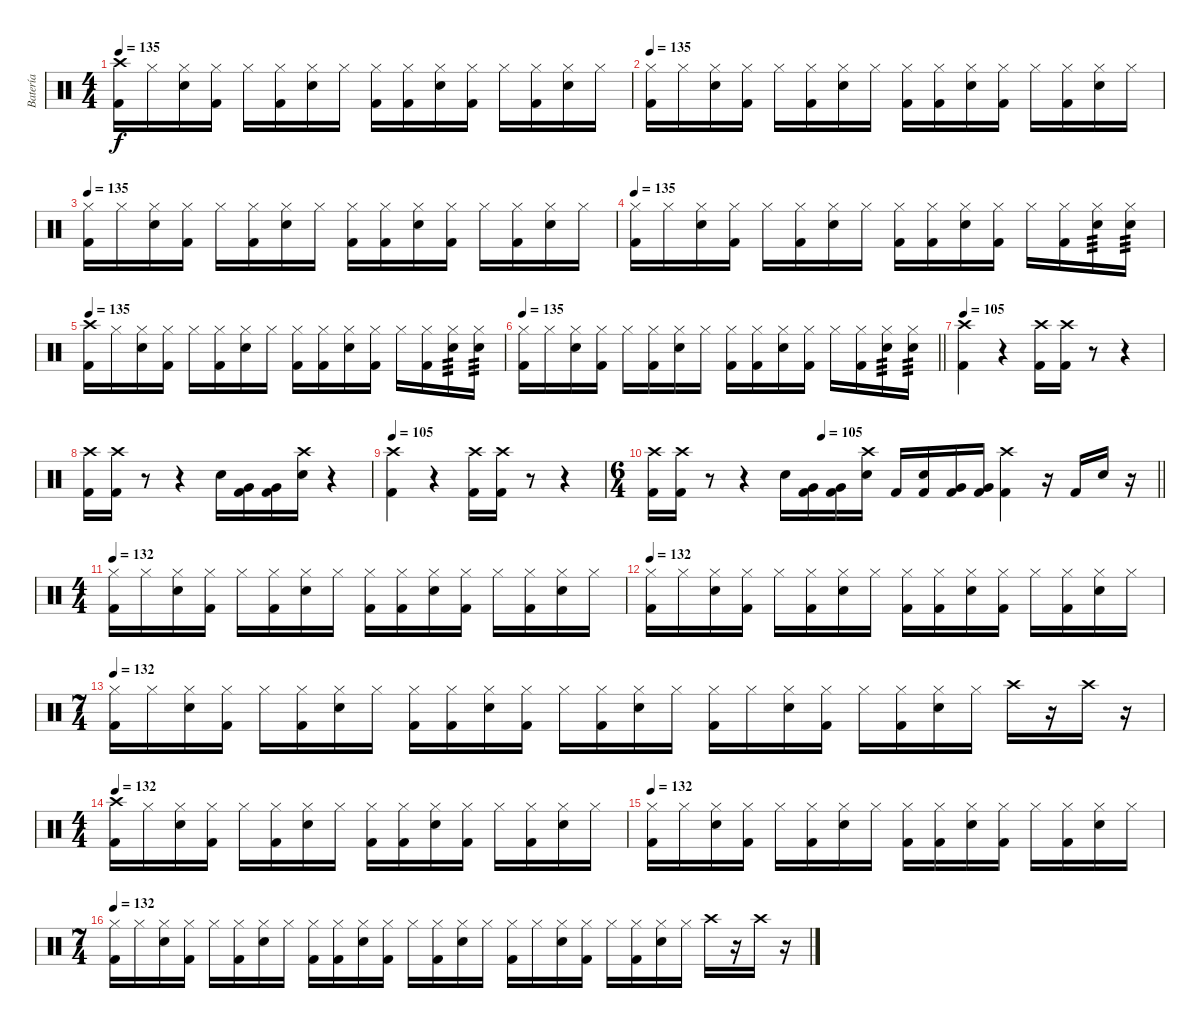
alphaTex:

\track ("Batería" "Batería") {instrument percussion}
\staff {score}
\articulation defaults
\ts (4 4)
\tempo 135
\clef neutral
\ks c
("Crash high (hit)" "Kick (hit) 2").16{dy f} "Hi-Hat (closed)".16 ("Hi-Hat (closed)" "Snare (hit) 2").16 ("Hi-Hat (closed)" "Kick (hit) 2").16 "Hi-Hat (closed)".16 ("Hi-Hat (closed)" "Kick (hit) 2").16 ("Hi-Hat (closed)" "Snare (hit) 2").16 "Hi-Hat (closed)".16 ("Hi-Hat (closed)" "Kick (hit) 2").16 ("Hi-Hat (closed)" "Kick (hit) 2").16 ("Hi-Hat (closed)" "Snare (hit) 2").16 ("Hi-Hat (closed)" "Kick (hit) 2").16 "Hi-Hat (closed)".16 ("Hi-Hat (closed)" "Kick (hit) 2").16 ("Hi-Hat (closed)" "Snare (hit) 2").16 "Hi-Hat (closed)".16 |
\tempo 135
("Hi-Hat (closed)" "Kick (hit) 2").16 "Hi-Hat (closed)".16 ("Hi-Hat (closed)" "Snare (hit) 2").16 ("Hi-Hat (closed)" "Kick (hit) 2").16 "Hi-Hat (closed)".16 ("Hi-Hat (closed)" "Kick (hit) 2").16 ("Hi-Hat (closed)" "Snare (hit) 2").16 "Hi-Hat (closed)".16 ("Hi-Hat (closed)" "Kick (hit) 2").16 ("Hi-Hat (closed)" "Kick (hit) 2").16 ("Hi-Hat (closed)" "Snare (hit) 2").16 ("Hi-Hat (closed)" "Kick (hit) 2").16 "Hi-Hat (closed)".16 ("Hi-Hat (closed)" "Kick (hit) 2").16 ("Hi-Hat (closed)" "Snare (hit) 2").16 "Hi-Hat (closed)".16 |
\tempo 135
("Hi-Hat (closed)" "Kick (hit) 2").16 "Hi-Hat (closed)".16 ("Hi-Hat (closed)" "Snare (hit) 2").16 ("Hi-Hat (closed)" "Kick (hit) 2").16 "Hi-Hat (closed)".16 ("Hi-Hat (closed)" "Kick (hit) 2").16 ("Hi-Hat (closed)" "Snare (hit) 2").16 "Hi-Hat (closed)".16 ("Hi-Hat (closed)" "Kick (hit) 2").16 ("Hi-Hat (closed)" "Kick (hit) 2").16 ("Hi-Hat (closed)" "Snare (hit) 2").16 ("Hi-Hat (closed)" "Kick (hit) 2").16 "Hi-Hat (closed)".16 ("Hi-Hat (closed)" "Kick (hit) 2").16 ("Hi-Hat (closed)" "Snare (hit) 2").16 "Hi-Hat (closed)".16 |
\tempo 135
("Hi-Hat (closed)" "Kick (hit) 2").16 "Hi-Hat (closed)".16 ("Hi-Hat (closed)" "Snare (hit) 2").16 ("Hi-Hat (closed)" "Kick (hit) 2").16 "Hi-Hat (closed)".16 ("Hi-Hat (closed)" "Kick (hit) 2").16 ("Hi-Hat (closed)" "Snare (hit) 2").16 "Hi-Hat (closed)".16 ("Hi-Hat (closed)" "Kick (hit) 2").16 ("Hi-Hat (closed)" "Kick (hit) 2").16 ("Hi-Hat (closed)" "Snare (hit) 2").16 ("Hi-Hat (closed)" "Kick (hit) 2").16 "Hi-Hat (closed)".16 ("Hi-Hat (closed)" "Kick (hit) 2").16 ("Hi-Hat (closed)" "Snare (hit) 2").16{tp 3} ("Hi-Hat (closed)" "Snare (hit) 2").16{tp 3} |
\tempo 135
("Crash high (hit)" "Kick (hit) 2").16 "Hi-Hat (closed)".16 ("Hi-Hat (closed)" "Snare (hit) 2").16 ("Hi-Hat (closed)" "Kick (hit) 2").16 "Hi-Hat (closed)".16 ("Hi-Hat (closed)" "Kick (hit) 2").16 ("Hi-Hat (closed)" "Snare (hit) 2").16 "Hi-Hat (closed)".16 ("Hi-Hat (closed)" "Kick (hit) 2").16 ("Hi-Hat (closed)" "Kick (hit) 2").16 ("Hi-Hat (closed)" "Snare (hit) 2").16 ("Hi-Hat (closed)" "Kick (hit) 2").16 "Hi-Hat (closed)".16 ("Hi-Hat (closed)" "Kick (hit) 2").16 ("Hi-Hat (closed)" "Snare (hit) 2").16{tp 3} ("Hi-Hat (closed)" "Snare (hit) 2").16{tp 3} |
\tempo 135
\barLineRight lightlight
("Hi-Hat (closed)" "Kick (hit) 2").16 "Hi-Hat (closed)".16 ("Hi-Hat (closed)" "Snare (hit) 2").16 ("Hi-Hat (closed)" "Kick (hit) 2").16 "Hi-Hat (closed)".16 ("Hi-Hat (closed)" "Kick (hit) 2").16 ("Hi-Hat (closed)" "Snare (hit) 2").16 "Hi-Hat (closed)".16 ("Hi-Hat (closed)" "Kick (hit) 2").16 ("Hi-Hat (closed)" "Kick (hit) 2").16 ("Hi-Hat (closed)" "Snare (hit) 2").16 ("Hi-Hat (closed)" "Kick (hit) 2").16 "Hi-Hat (closed)".16 ("Hi-Hat (closed)" "Kick (hit) 2").16 ("Hi-Hat (closed)" "Snare (hit) 2").16{tp 3} ("Hi-Hat (closed)" "Snare (hit) 2").16{tp 3} |
\tempo 105
("Crash high (hit)" "Kick (hit) 2").4 r.4 ("Crash high (hit)" "Kick (hit) 2").16 ("Crash high (hit)" "Kick (hit) 2").16 r.8 r.4 |
("Crash high (hit)" "Kick (hit) 2").16 ("Crash high (hit)" "Kick (hit) 2").16 r.8 r.4 "Snare (hit) 2".16 ("Very Low Tom (hit)" "Kick (hit) 2").16 ("Very Low Tom (hit)" "Kick (hit) 2").16 ("Crash high (hit)" "Snare (hit) 2").16 r.4 |
\tempo 105
("Crash high (hit)" "Kick (hit) 2").4 r.4 ("Crash high (hit)" "Kick (hit) 2").16 ("Crash high (hit)" "Kick (hit) 2").16 r.8 r.4 |
\ts (6 4)
\tempo (105 0.3333333333333333)
\barLineRight lightlight
("Crash high (hit)" "Kick (hit) 2").16 ("Crash high (hit)" "Kick (hit) 2").16 r.8 r.4 "Snare (hit) 2".16 ("Very Low Tom (hit)" "Kick (hit) 2").16 ("Very Low Tom (hit)" "Kick (hit) 2").16 ("Crash high (hit)" "Snare (hit) 2").16 "Kick (hit) 2".16 ("Snare (hit) 2" "Kick (hit) 2").16 ("Very Low Tom (hit)" "Kick (hit) 2").16 ("Very Low Tom (hit)" "Kick (hit) 2").16 ("Crash high (hit)" "Kick (hit) 2").4 r.16 "Kick (hit) 2".16 "Snare (hit) 2".16 r.16 |
\ts (4 4)
\tempo 132
("Hi-Hat (closed)" "Kick (hit) 2").16 "Hi-Hat (closed)".16 ("Hi-Hat (closed)" "Snare (hit) 2").16 ("Hi-Hat (closed)" "Kick (hit) 2").16 "Hi-Hat (closed)".16 ("Hi-Hat (closed)" "Kick (hit) 2").16 ("Hi-Hat (closed)" "Snare (hit) 2").16 "Hi-Hat (closed)".16 ("Hi-Hat (closed)" "Kick (hit) 2").16 ("Hi-Hat (closed)" "Kick (hit) 2").16 ("Hi-Hat (closed)" "Snare (hit) 2").16 ("Hi-Hat (closed)" "Kick (hit) 2").16 "Hi-Hat (closed)".16 ("Hi-Hat (closed)" "Kick (hit) 2").16 ("Hi-Hat (closed)" "Snare (hit) 2").16 "Hi-Hat (closed)".16 |
\tempo 132
("Hi-Hat (closed)" "Kick (hit) 2").16 "Hi-Hat (closed)".16 ("Hi-Hat (closed)" "Snare (hit) 2").16 ("Hi-Hat (closed)" "Kick (hit) 2").16 "Hi-Hat (closed)".16 ("Hi-Hat (closed)" "Kick (hit) 2").16 ("Hi-Hat (closed)" "Snare (hit) 2").16 "Hi-Hat (closed)".16 ("Hi-Hat (closed)" "Kick (hit) 2").16 ("Hi-Hat (closed)" "Kick (hit) 2").16 ("Hi-Hat (closed)" "Snare (hit) 2").16 ("Hi-Hat (closed)" "Kick (hit) 2").16 "Hi-Hat (closed)".16 ("Hi-Hat (closed)" "Kick (hit) 2").16 ("Hi-Hat (closed)" "Snare (hit) 2").16 "Hi-Hat (closed)".16 |
\ts (7 4)
\tempo 132
("Hi-Hat (closed)" "Kick (hit) 2").16 "Hi-Hat (closed)".16 ("Hi-Hat (closed)" "Snare (hit) 2").16 ("Hi-Hat (closed)" "Kick (hit) 2").16 "Hi-Hat (closed)".16 ("Hi-Hat (closed)" "Kick (hit) 2").16 ("Hi-Hat (closed)" "Snare (hit) 2").16 "Hi-Hat (closed)".16 ("Hi-Hat (closed)" "Kick (hit) 2").16 ("Hi-Hat (closed)" "Kick (hit) 2").16 ("Hi-Hat (closed)" "Snare (hit) 2").16 ("Hi-Hat (closed)" "Kick (hit) 2").16 "Hi-Hat (closed)".16 ("Hi-Hat (closed)" "Kick (hit) 2").16 ("Hi-Hat (closed)" "Snare (hit) 2").16 "Hi-Hat (closed)".16 ("Hi-Hat (closed)" "Kick (hit) 2").16 "Hi-Hat (closed)".16 ("Hi-Hat (closed)" "Snare (hit) 2").16 ("Hi-Hat (closed)" "Kick (hit) 2").16 "Hi-Hat (closed)".16 ("Hi-Hat (closed)" "Kick (hit) 2").16 ("Hi-Hat (closed)" "Snare (hit) 2").16 "Hi-Hat (closed)".16 "Crash high (hit)".16 r.16 "Crash high (hit)".16 r.16 |
\ts (4 4)
\tempo 132
("Crash high (hit)" "Kick (hit) 2").16 "Hi-Hat (closed)".16 ("Hi-Hat (closed)" "Snare (hit) 2").16 ("Hi-Hat (closed)" "Kick (hit) 2").16 "Hi-Hat (closed)".16 ("Hi-Hat (closed)" "Kick (hit) 2").16 ("Hi-Hat (closed)" "Snare (hit) 2").16 "Hi-Hat (closed)".16 ("Hi-Hat (closed)" "Kick (hit) 2").16 ("Hi-Hat (closed)" "Kick (hit) 2").16 ("Hi-Hat (closed)" "Snare (hit) 2").16 ("Hi-Hat (closed)" "Kick (hit) 2").16 "Hi-Hat (closed)".16 ("Hi-Hat (closed)" "Kick (hit) 2").16 ("Hi-Hat (closed)" "Snare (hit) 2").16 "Hi-Hat (closed)".16 |
\tempo 132
("Hi-Hat (closed)" "Kick (hit) 2").16 "Hi-Hat (closed)".16 ("Hi-Hat (closed)" "Snare (hit) 2").16 ("Hi-Hat (closed)" "Kick (hit) 2").16 "Hi-Hat (closed)".16 ("Hi-Hat (closed)" "Kick (hit) 2").16 ("Hi-Hat (closed)" "Snare (hit) 2").16 "Hi-Hat (closed)".16 ("Hi-Hat (closed)" "Kick (hit) 2").16 ("Hi-Hat (closed)" "Kick (hit) 2").16 ("Hi-Hat (closed)" "Snare (hit) 2").16 ("Hi-Hat (closed)" "Kick (hit) 2").16 "Hi-Hat (closed)".16 ("Hi-Hat (closed)" "Kick (hit) 2").16 ("Hi-Hat (closed)" "Snare (hit) 2").16 "Hi-Hat (closed)".16 |
\ts (7 4)
\tempo 132
("Hi-Hat (closed)" "Kick (hit) 2").16 "Hi-Hat (closed)".16 ("Hi-Hat (closed)" "Snare (hit) 2").16 ("Hi-Hat (closed)" "Kick (hit) 2").16 "Hi-Hat (closed)".16 ("Hi-Hat (closed)" "Kick (hit) 2").16 ("Hi-Hat (closed)" "Snare (hit) 2").16 "Hi-Hat (closed)".16 ("Hi-Hat (closed)" "Kick (hit) 2").16 ("Hi-Hat (closed)" "Kick (hit) 2").16 ("Hi-Hat (closed)" "Snare (hit) 2").16 ("Hi-Hat (closed)" "Kick (hit) 2").16 "Hi-Hat (closed)".16 ("Hi-Hat (closed)" "Kick (hit) 2").16 ("Hi-Hat (closed)" "Snare (hit) 2").16 "Hi-Hat (closed)".16 ("Hi-Hat (closed)" "Kick (hit) 2").16 "Hi-Hat (closed)".16 ("Hi-Hat (closed)" "Snare (hit) 2").16 ("Hi-Hat (closed)" "Kick (hit) 2").16 "Hi-Hat (closed)".16 ("Hi-Hat (closed)" "Kick (hit) 2").16 ("Hi-Hat (closed)" "Snare (hit) 2").16 "Hi-Hat (closed)".16 "Crash high (hit)".16 r.16 "Crash high (hit)".16 r.16
